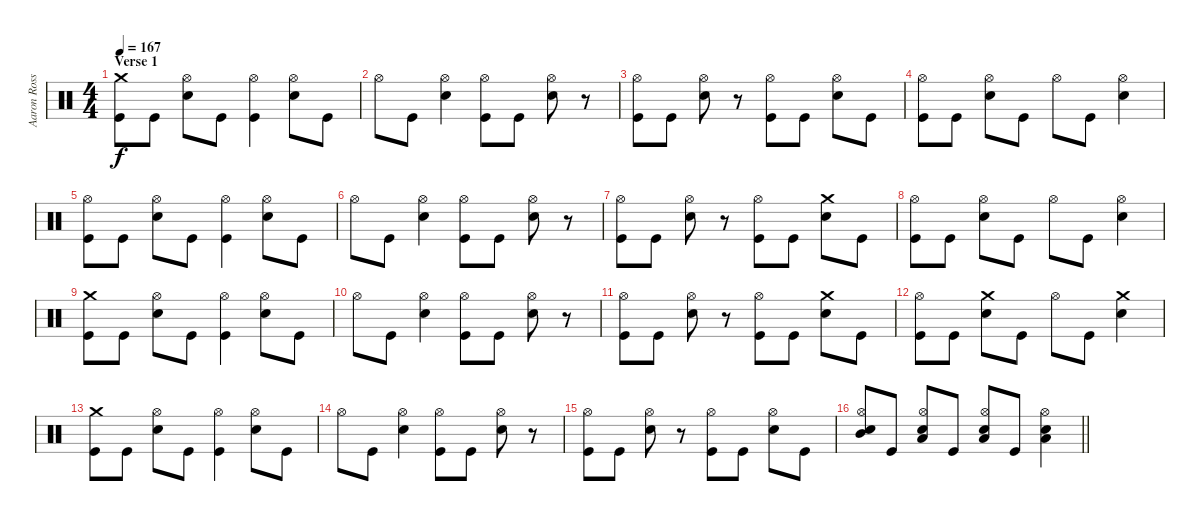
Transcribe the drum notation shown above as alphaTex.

\track ("Aaron Rossi (Drums)" "Aaron Ross") {instrument percussion}
\staff {score}
\articulation defaults
\ts (4 4)
\section ("" "Verse 1")
\tempo 167
\clef neutral
\ks c
("Crash medium (hit)" "Kick (hit)").8{dy f} "Kick (hit)".8 ("Snare (hit) 2" "Hi-Hat (open)").8 "Kick (hit)".8 ("Hi-Hat (open)" "Kick (hit)").4 ("Snare (hit) 2" "Hi-Hat (open)").8 "Kick (hit)".8 |
"Hi-Hat (open)".8 "Kick (hit)".8 ("Snare (hit) 2" "Hi-Hat (open)").4 ("Hi-Hat (open)" "Kick (hit)").8 "Kick (hit)".8 ("Snare (hit) 2" "Hi-Hat (open)").8 r.8 |
("Hi-Hat (open)" "Kick (hit)").8 "Kick (hit)".8 ("Snare (hit) 2" "Hi-Hat (open)").8 r.8 ("Hi-Hat (open)" "Kick (hit)").8 "Kick (hit)".8 ("Snare (hit) 2" "Hi-Hat (open)").8 "Kick (hit)".8 |
("Hi-Hat (open)" "Kick (hit)").8 "Kick (hit)".8 ("Snare (hit) 2" "Hi-Hat (open)").8 "Kick (hit)".8 "Hi-Hat (open)".8 "Kick (hit)".8 ("Snare (hit) 2" "Hi-Hat (open)").4 |
("Hi-Hat (open)" "Kick (hit)").8 "Kick (hit)".8 ("Snare (hit) 2" "Hi-Hat (open)").8 "Kick (hit)".8 ("Hi-Hat (open)" "Kick (hit)").4 ("Snare (hit) 2" "Hi-Hat (open)").8 "Kick (hit)".8 |
"Hi-Hat (open)".8 "Kick (hit)".8 ("Snare (hit) 2" "Hi-Hat (open)").4 ("Hi-Hat (open)" "Kick (hit)").8 "Kick (hit)".8 ("Snare (hit) 2" "Hi-Hat (open)").8 r.8 |
("Hi-Hat (open)" "Kick (hit)").8 "Kick (hit)".8 ("Snare (hit) 2" "Hi-Hat (open)").8 r.8 ("Hi-Hat (open)" "Kick (hit)").8 "Kick (hit)".8 ("Crash medium (hit)" "Snare (hit) 2").8 "Kick (hit)".8 |
("Hi-Hat (open)" "Kick (hit)").8 "Kick (hit)".8 ("Snare (hit) 2" "Hi-Hat (open)").8 "Kick (hit)".8 "Hi-Hat (open)".8 "Kick (hit)".8 ("Snare (hit) 2" "Hi-Hat (open)").4 |
("Crash medium (hit)" "Kick (hit)").8 "Kick (hit)".8 ("Snare (hit) 2" "Hi-Hat (open)").8 "Kick (hit)".8 ("Hi-Hat (open)" "Kick (hit)").4 ("Snare (hit) 2" "Hi-Hat (open)").8 "Kick (hit)".8 |
"Hi-Hat (open)".8 "Kick (hit)".8 ("Snare (hit) 2" "Hi-Hat (open)").4 ("Hi-Hat (open)" "Kick (hit)").8 "Kick (hit)".8 ("Snare (hit) 2" "Hi-Hat (open)").8 r.8 |
("Hi-Hat (open)" "Kick (hit)").8 "Kick (hit)".8 ("Snare (hit) 2" "Hi-Hat (open)").8 r.8 ("Hi-Hat (open)" "Kick (hit)").8 "Kick (hit)".8 ("Crash medium (hit)" "Snare (hit) 2").8 "Kick (hit)".8 |
("Hi-Hat (open)" "Kick (hit)").8 "Kick (hit)".8 ("Crash medium (hit)" "Snare (hit) 2").8 "Kick (hit)".8 "Hi-Hat (open)".8 "Kick (hit)".8 ("Crash medium (hit)" "Snare (hit) 2").4 |
("Crash medium (hit)" "Kick (hit)").8 "Kick (hit)".8 ("Snare (hit) 2" "Hi-Hat (open)").8 "Kick (hit)".8 ("Hi-Hat (open)" "Kick (hit)").4 ("Snare (hit) 2" "Hi-Hat (open)").8 "Kick (hit)".8 |
"Hi-Hat (open)".8 "Kick (hit)".8 ("Snare (hit) 2" "Hi-Hat (open)").4 ("Hi-Hat (open)" "Kick (hit)").8 "Kick (hit)".8 ("Snare (hit) 2" "Hi-Hat (open)").8 r.8 |
("Hi-Hat (open)" "Kick (hit)").8 "Kick (hit)".8 ("Snare (hit) 2" "Hi-Hat (open)").8 r.8 ("Hi-Hat (open)" "Kick (hit)").8 "Kick (hit)".8 ("Snare (hit) 2" "Hi-Hat (open)").8 "Kick (hit)".8 |
\barLineRight lightlight
("Snare (hit) 2" "Hi-Hat (open)" "Mid Tom (hit)").8 "Kick (hit)".8 ("Snare (hit) 2" "Hi-Hat (open)" "Low Tom (hit)").8 "Kick (hit)".8 ("Snare (hit) 2" "Hi-Hat (open)" "Low Floor Tom (hit)").8 "Kick (hit)".8 ("Snare (hit) 2" "Hi-Hat (open)" "Low Floor Tom (hit)").4
